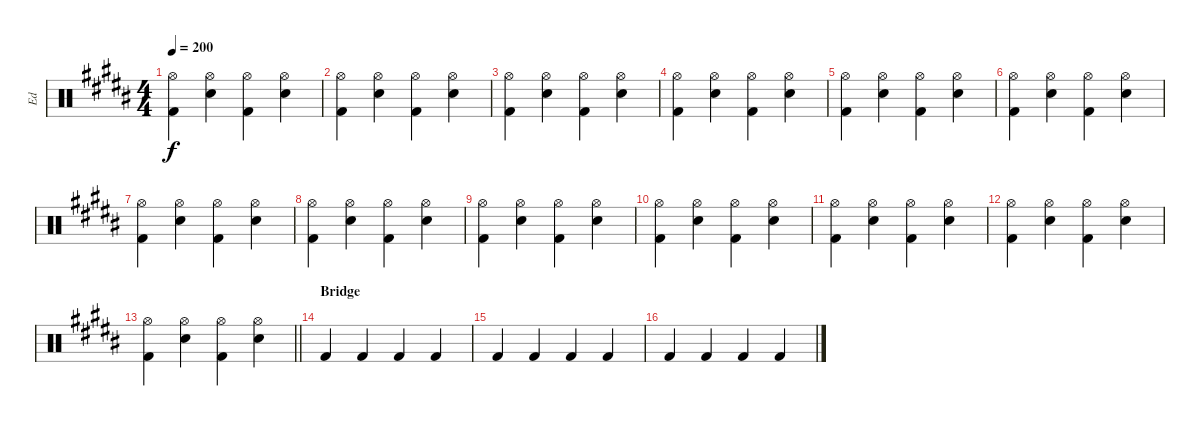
\track ("Ed" "Ed") {instrument percussion bank 127}
\staff {score}
\articulation defaults
\ts (4 4)
\tempo 200
\clef neutral
\ks g#minor
("Hi-Hat (open)" "Kick (hit) 2").4{dy f} ("Hi-Hat (open)" "Electric Snare (hit)").4 ("Hi-Hat (open)" "Kick (hit) 2").4 ("Hi-Hat (open)" "Electric Snare (hit)").4 |
("Hi-Hat (open)" "Kick (hit) 2").4 ("Hi-Hat (open)" "Electric Snare (hit)").4 ("Hi-Hat (open)" "Kick (hit) 2").4 ("Hi-Hat (open)" "Electric Snare (hit)").4 |
("Hi-Hat (open)" "Kick (hit) 2").4 ("Hi-Hat (open)" "Electric Snare (hit)").4 ("Hi-Hat (open)" "Kick (hit) 2").4 ("Hi-Hat (open)" "Electric Snare (hit)").4 |
("Hi-Hat (open)" "Kick (hit) 2").4 ("Hi-Hat (open)" "Electric Snare (hit)").4 ("Hi-Hat (open)" "Kick (hit) 2").4 ("Hi-Hat (open)" "Electric Snare (hit)").4 |
("Hi-Hat (open)" "Kick (hit) 2").4 ("Hi-Hat (open)" "Electric Snare (hit)").4 ("Hi-Hat (open)" "Kick (hit) 2").4 ("Hi-Hat (open)" "Electric Snare (hit)").4 |
("Hi-Hat (open)" "Kick (hit) 2").4 ("Hi-Hat (open)" "Electric Snare (hit)").4 ("Hi-Hat (open)" "Kick (hit) 2").4 ("Hi-Hat (open)" "Electric Snare (hit)").4 |
("Hi-Hat (open)" "Kick (hit) 2").4 ("Hi-Hat (open)" "Electric Snare (hit)").4 ("Hi-Hat (open)" "Kick (hit) 2").4 ("Hi-Hat (open)" "Electric Snare (hit)").4 |
("Hi-Hat (open)" "Kick (hit) 2").4 ("Hi-Hat (open)" "Electric Snare (hit)").4 ("Hi-Hat (open)" "Kick (hit) 2").4 ("Hi-Hat (open)" "Electric Snare (hit)").4 |
("Hi-Hat (open)" "Kick (hit) 2").4 ("Hi-Hat (open)" "Electric Snare (hit)").4 ("Hi-Hat (open)" "Kick (hit) 2").4 ("Hi-Hat (open)" "Electric Snare (hit)").4 |
("Hi-Hat (open)" "Kick (hit) 2").4 ("Hi-Hat (open)" "Electric Snare (hit)").4 ("Hi-Hat (open)" "Kick (hit) 2").4 ("Hi-Hat (open)" "Electric Snare (hit)").4 |
("Hi-Hat (open)" "Kick (hit) 2").4 ("Hi-Hat (open)" "Electric Snare (hit)").4 ("Hi-Hat (open)" "Kick (hit) 2").4 ("Hi-Hat (open)" "Electric Snare (hit)").4 |
("Hi-Hat (open)" "Kick (hit) 2").4 ("Hi-Hat (open)" "Electric Snare (hit)").4 ("Hi-Hat (open)" "Kick (hit) 2").4 ("Hi-Hat (open)" "Electric Snare (hit)").4 |
\barLineRight lightlight
("Hi-Hat (open)" "Kick (hit) 2").4 ("Hi-Hat (open)" "Electric Snare (hit)").4 ("Hi-Hat (open)" "Kick (hit) 2").4 ("Hi-Hat (open)" "Electric Snare (hit)").4 |
\section ("" "Bridge")
"Kick (hit) 2".4 "Kick (hit) 2".4 "Kick (hit) 2".4 "Kick (hit) 2".4 |
"Kick (hit) 2".4 "Kick (hit) 2".4 "Kick (hit) 2".4 "Kick (hit) 2".4 |
"Kick (hit) 2".4 "Kick (hit) 2".4 "Kick (hit) 2".4 "Kick (hit) 2".4
